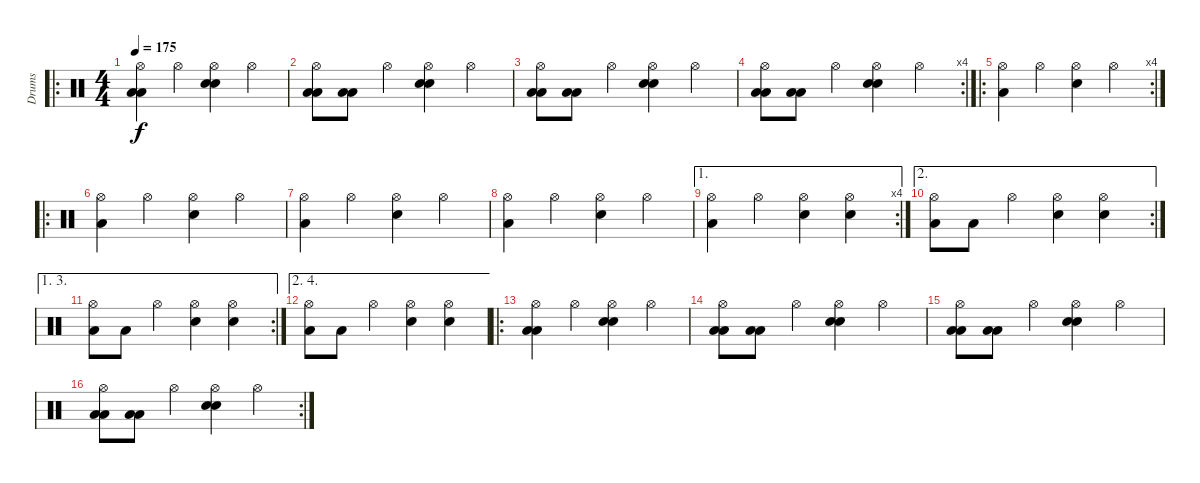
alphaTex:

\track ("Drums" "Drums") {instrument percussion}
\staff {score}
\articulation defaults
\ro
\ts (4 4)
\tempo 175
\clef neutral
\ks c
("Low Tom (hit)" "Low Tom (hit)" "Hi-Hat (open)").4{dy f} "Hi-Hat (open)".4 ("Electric Snare (hit)" "Electric Snare (hit)" "Hi-Hat (open)").4 "Hi-Hat (open)".4 |
("Low Tom (hit)" "Low Tom (hit)" "Hi-Hat (open)").8 ("Low Tom (hit)" "Low Tom (hit)").8 "Hi-Hat (open)".4 ("Electric Snare (hit)" "Electric Snare (hit)" "Hi-Hat (open)").4 "Hi-Hat (open)".4 |
("Low Tom (hit)" "Low Tom (hit)" "Hi-Hat (open)").8 ("Low Tom (hit)" "Low Tom (hit)").8 "Hi-Hat (open)".4 ("Electric Snare (hit)" "Electric Snare (hit)" "Hi-Hat (open)").4 "Hi-Hat (open)".4 |
\rc 4
("Low Tom (hit)" "Low Tom (hit)" "Hi-Hat (open)").8 ("Low Tom (hit)" "Low Tom (hit)").8 "Hi-Hat (open)".4 ("Electric Snare (hit)" "Electric Snare (hit)" "Hi-Hat (open)").4 "Hi-Hat (open)".4 |
\ro
\rc 4
("Low Tom (hit)" "Hi-Hat (open)").4 "Hi-Hat (open)".4 ("Electric Snare (hit)" "Hi-Hat (open)").4 "Hi-Hat (open)".4 |
\ro
("Low Tom (hit)" "Hi-Hat (open)").4 "Hi-Hat (open)".4 ("Electric Snare (hit)" "Hi-Hat (open)").4 "Hi-Hat (open)".4 |
("Low Tom (hit)" "Hi-Hat (open)").4 "Hi-Hat (open)".4 ("Electric Snare (hit)" "Hi-Hat (open)").4 "Hi-Hat (open)".4 |
("Low Tom (hit)" "Hi-Hat (open)").4 "Hi-Hat (open)".4 ("Electric Snare (hit)" "Hi-Hat (open)").4 "Hi-Hat (open)".4 |
\ae 1
\rc 4
("Low Tom (hit)" "Hi-Hat (open)").4 "Hi-Hat (open)".4 ("Electric Snare (hit)" "Hi-Hat (open)").4 ("Electric Snare (hit)" "Hi-Hat (open)").4 |
\ae 2
\rc 2
("Low Tom (hit)" "Hi-Hat (open)").8 "Low Tom (hit)".8 "Hi-Hat (open)".4 ("Electric Snare (hit)" "Hi-Hat (open)").4 ("Electric Snare (hit)" "Hi-Hat (open)").4 |
\ae (1 3)
\rc 2
("Low Tom (hit)" "Hi-Hat (open)").8 "Low Tom (hit)".8 "Hi-Hat (open)".4 ("Electric Snare (hit)" "Hi-Hat (open)").4 ("Electric Snare (hit)" "Hi-Hat (open)").4 |
\ae (2 4)
("Low Tom (hit)" "Hi-Hat (open)").8 "Low Tom (hit)".8 "Hi-Hat (open)".4 ("Electric Snare (hit)" "Hi-Hat (open)").4 ("Electric Snare (hit)" "Hi-Hat (open)").4 |
\ro
("Low Tom (hit)" "Low Tom (hit)" "Hi-Hat (open)").4 "Hi-Hat (open)".4 ("Electric Snare (hit)" "Electric Snare (hit)" "Hi-Hat (open)").4 "Hi-Hat (open)".4 |
("Low Tom (hit)" "Low Tom (hit)" "Hi-Hat (open)").8 ("Low Tom (hit)" "Low Tom (hit)").8 "Hi-Hat (open)".4 ("Electric Snare (hit)" "Electric Snare (hit)" "Hi-Hat (open)").4 "Hi-Hat (open)".4 |
("Low Tom (hit)" "Low Tom (hit)" "Hi-Hat (open)").8 ("Low Tom (hit)" "Low Tom (hit)").8 "Hi-Hat (open)".4 ("Electric Snare (hit)" "Electric Snare (hit)" "Hi-Hat (open)").4 "Hi-Hat (open)".4 |
\rc 2
("Low Tom (hit)" "Low Tom (hit)" "Hi-Hat (open)").8 ("Low Tom (hit)" "Low Tom (hit)").8 "Hi-Hat (open)".4 ("Electric Snare (hit)" "Electric Snare (hit)" "Hi-Hat (open)").4 "Hi-Hat (open)".4
